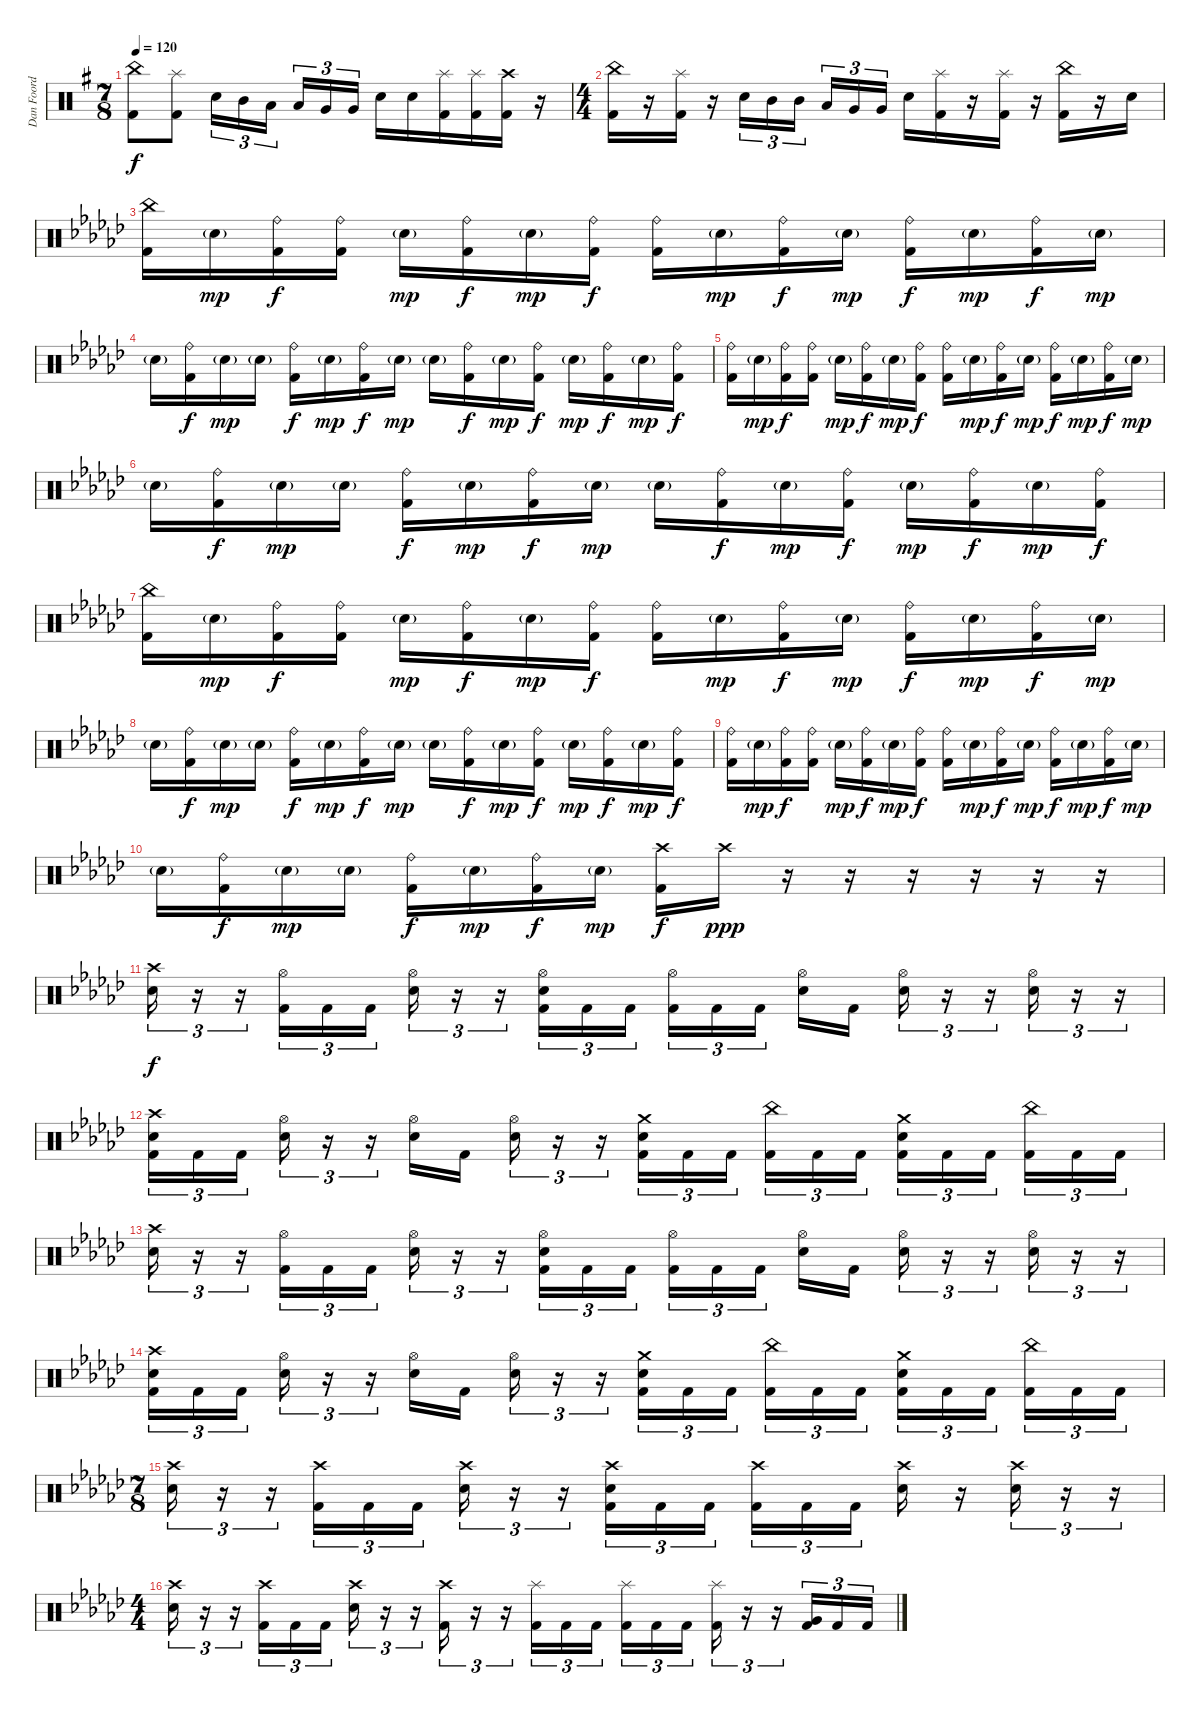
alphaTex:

\track ("Dan Foord 2" "Dan Foord ") {instrument percussion}
\staff {score}
\articulation defaults
\ts (7 8)
\tempo 120
\clef neutral
\ks g
("China (hit)" "Kick (hit) 2").8{dy f} ("Splash (hit)" "Kick (hit) 2").8 "Snare (hit) 2".16{tu (3 2)} "Mid Tom (hit)".16{tu (3 2)} "Low Tom (hit)".16{tu (3 2)} "Low Tom (hit)".16{tu (3 2)} "Very Low Tom (hit)".16{tu (3 2)} "Very Low Tom (hit)".16{tu (3 2)} "Snare (hit) 2".16 "Snare (hit) 2".16 ("Splash (hit)" "Kick (hit) 2").16 ("Splash (hit)" "Kick (hit) 2").16 ("Crash high (hit)" "Kick (hit) 2").16 r.16 |
\ts (4 4)
("China (hit)" "Kick (hit) 2").16 r.16 ("Splash (hit)" "Kick (hit) 2").16 r.16 "Snare (hit) 2".16{tu (3 2)} "Mid Tom (hit)".16{tu (3 2)} "Mid Tom (hit)".16{tu (3 2) beam splitsecondary} "Low Tom (hit)".16{tu (3 2)} "Very Low Tom (hit)".16{tu (3 2)} "Very Low Tom (hit)".16{tu (3 2)} "Snare (hit) 2".16 ("Splash (hit)" "Kick (hit) 2").16 r.16 ("Splash (hit)" "Kick (hit) 2").16 r.16 ("China (hit)" "Kick (hit) 2").16 r.16 "Snare (hit) 2".16 |
\ks gb
("China (hit)" "Kick (hit) 2").16 "Snare (hit) 2"{g}.16{dy mp} ("Ride (bell)" "Kick (hit) 2").16{dy f} ("Ride (bell)" "Kick (hit) 2").16 "Snare (hit) 2"{g}.16{dy mp} ("Ride (bell)" "Kick (hit) 2").16{dy f} "Snare (hit) 2"{g}.16{dy mp} ("Ride (bell)" "Kick (hit) 2").16{dy f} ("Ride (bell)" "Kick (hit) 2").16 "Snare (hit) 2"{g}.16{dy mp} ("Ride (bell)" "Kick (hit) 2").16{dy f} "Snare (hit) 2"{g}.16{dy mp} ("Ride (bell)" "Kick (hit) 2").16{dy f} "Snare (hit) 2"{g}.16{dy mp} ("Ride (bell)" "Kick (hit) 2").16{dy f} "Snare (hit) 2"{g}.16{dy mp} |
"Snare (hit) 2"{g}.16 ("Ride (bell)" "Kick (hit) 2").16{dy f} "Snare (hit) 2"{g}.16{dy mp} "Snare (hit) 2"{g}.16 ("Ride (bell)" "Kick (hit) 2").16{dy f} "Snare (hit) 2"{g}.16{dy mp} ("Ride (bell)" "Kick (hit) 2").16{dy f} "Snare (hit) 2"{g}.16{dy mp} "Snare (hit) 2"{g}.16 ("Ride (bell)" "Kick (hit) 2").16{dy f} "Snare (hit) 2"{g}.16{dy mp} ("Ride (bell)" "Kick (hit) 2").16{dy f} "Snare (hit) 2"{g}.16{dy mp} ("Ride (bell)" "Kick (hit) 2").16{dy f} "Snare (hit) 2"{g}.16{dy mp} ("Ride (bell)" "Kick (hit) 2").16{dy f} |
("Ride (bell)" "Kick (hit) 2").16 "Snare (hit) 2"{g}.16{dy mp} ("Ride (bell)" "Kick (hit) 2").16{dy f} ("Ride (bell)" "Kick (hit) 2").16 "Snare (hit) 2"{g}.16{dy mp} ("Ride (bell)" "Kick (hit) 2").16{dy f} "Snare (hit) 2"{g}.16{dy mp} ("Ride (bell)" "Kick (hit) 2").16{dy f} ("Ride (bell)" "Kick (hit) 2").16 "Snare (hit) 2"{g}.16{dy mp} ("Ride (bell)" "Kick (hit) 2").16{dy f} "Snare (hit) 2"{g}.16{dy mp} ("Ride (bell)" "Kick (hit) 2").16{dy f} "Snare (hit) 2"{g}.16{dy mp} ("Ride (bell)" "Kick (hit) 2").16{dy f} "Snare (hit) 2"{g}.16{dy mp} |
"Snare (hit) 2"{g}.16 ("Ride (bell)" "Kick (hit) 2").16{dy f} "Snare (hit) 2"{g}.16{dy mp} "Snare (hit) 2"{g}.16 ("Ride (bell)" "Kick (hit) 2").16{dy f} "Snare (hit) 2"{g}.16{dy mp} ("Ride (bell)" "Kick (hit) 2").16{dy f} "Snare (hit) 2"{g}.16{dy mp} "Snare (hit) 2"{g}.16 ("Ride (bell)" "Kick (hit) 2").16{dy f} "Snare (hit) 2"{g}.16{dy mp} ("Ride (bell)" "Kick (hit) 2").16{dy f} "Snare (hit) 2"{g}.16{dy mp} ("Ride (bell)" "Kick (hit) 2").16{dy f} "Snare (hit) 2"{g}.16{dy mp} ("Ride (bell)" "Kick (hit) 2").16{dy f} |
("China (hit)" "Kick (hit) 2").16 "Snare (hit) 2"{g}.16{dy mp} ("Ride (bell)" "Kick (hit) 2").16{dy f} ("Ride (bell)" "Kick (hit) 2").16 "Snare (hit) 2"{g}.16{dy mp} ("Ride (bell)" "Kick (hit) 2").16{dy f} "Snare (hit) 2"{g}.16{dy mp} ("Ride (bell)" "Kick (hit) 2").16{dy f} ("Ride (bell)" "Kick (hit) 2").16 "Snare (hit) 2"{g}.16{dy mp} ("Ride (bell)" "Kick (hit) 2").16{dy f} "Snare (hit) 2"{g}.16{dy mp} ("Ride (bell)" "Kick (hit) 2").16{dy f} "Snare (hit) 2"{g}.16{dy mp} ("Ride (bell)" "Kick (hit) 2").16{dy f} "Snare (hit) 2"{g}.16{dy mp} |
"Snare (hit) 2"{g}.16 ("Ride (bell)" "Kick (hit) 2").16{dy f} "Snare (hit) 2"{g}.16{dy mp} "Snare (hit) 2"{g}.16 ("Ride (bell)" "Kick (hit) 2").16{dy f} "Snare (hit) 2"{g}.16{dy mp} ("Ride (bell)" "Kick (hit) 2").16{dy f} "Snare (hit) 2"{g}.16{dy mp} "Snare (hit) 2"{g}.16 ("Ride (bell)" "Kick (hit) 2").16{dy f} "Snare (hit) 2"{g}.16{dy mp} ("Ride (bell)" "Kick (hit) 2").16{dy f} "Snare (hit) 2"{g}.16{dy mp} ("Ride (bell)" "Kick (hit) 2").16{dy f} "Snare (hit) 2"{g}.16{dy mp} ("Ride (bell)" "Kick (hit) 2").16{dy f} |
("Ride (bell)" "Kick (hit) 2").16 "Snare (hit) 2"{g}.16{dy mp} ("Ride (bell)" "Kick (hit) 2").16{dy f} ("Ride (bell)" "Kick (hit) 2").16 "Snare (hit) 2"{g}.16{dy mp} ("Ride (bell)" "Kick (hit) 2").16{dy f} "Snare (hit) 2"{g}.16{dy mp} ("Ride (bell)" "Kick (hit) 2").16{dy f} ("Ride (bell)" "Kick (hit) 2").16 "Snare (hit) 2"{g}.16{dy mp} ("Ride (bell)" "Kick (hit) 2").16{dy f} "Snare (hit) 2"{g}.16{dy mp} ("Ride (bell)" "Kick (hit) 2").16{dy f} "Snare (hit) 2"{g}.16{dy mp} ("Ride (bell)" "Kick (hit) 2").16{dy f} "Snare (hit) 2"{g}.16{dy mp} |
"Snare (hit) 2"{g}.16 ("Ride (bell)" "Kick (hit) 2").16{dy f} "Snare (hit) 2"{g}.16{dy mp} "Snare (hit) 2"{g}.16 ("Ride (bell)" "Kick (hit) 2").16{dy f} "Snare (hit) 2"{g}.16{dy mp} ("Ride (bell)" "Kick (hit) 2").16{dy f} "Snare (hit) 2"{g}.16{dy mp} ("Crash high (hit)" "Kick (hit) 2").16{dy f} "Crash high (hit)".16{dy ppp} r.16 r.16 r.16 r.16 r.16 r.16 |
("Crash high (hit)" "Snare (hit) 2").16{tu (3 2) dy f} r.16{tu (3 2)} r.16{tu (3 2)} ("Hi-Hat (open)" "Kick (hit) 2").16{tu (3 2)} "Kick (hit) 2".16{tu (3 2)} "Kick (hit) 2".16{tu (3 2)} ("Hi-Hat (open)" "Snare (hit) 2").16{tu (3 2)} r.16{tu (3 2)} r.16{tu (3 2)} ("Hi-Hat (open)" "Snare (hit) 2" "Kick (hit) 2").16{tu (3 2)} "Kick (hit) 2".16{tu (3 2)} "Kick (hit) 2".16{tu (3 2)} ("Hi-Hat (open)" "Kick (hit) 2").16{tu (3 2)} "Kick (hit) 2".16{tu (3 2)} "Kick (hit) 2".16{tu (3 2) beam splitsecondary} ("Hi-Hat (open)" "Snare (hit) 2").16 "Kick (hit) 2".16 ("Hi-Hat (open)" "Snare (hit) 2").16{tu (3 2)} r.16{tu (3 2)} r.16{tu (3 2)} ("Hi-Hat (open)" "Snare (hit) 2").16{tu (3 2)} r.16{tu (3 2)} r.16{tu (3 2)} |
("Crash high (hit)" "Snare (hit) 2" "Kick (hit) 2").16{tu (3 2)} "Kick (hit) 2".16{tu (3 2)} "Kick (hit) 2".16{tu (3 2) beam splitsecondary} ("Hi-Hat (open)" "Snare (hit) 2").16{tu (3 2)} r.16{tu (3 2)} r.16{tu (3 2)} ("Hi-Hat (open)" "Snare (hit) 2").16 "Kick (hit) 2".16{beam splitsecondary} ("Hi-Hat (open)" "Snare (hit) 2").16{tu (3 2)} r.16{tu (3 2)} r.16{tu (3 2)} ("Crash medium (hit)" "Snare (hit) 2" "Kick (hit) 2").16{tu (3 2)} "Kick (hit) 2".16{tu (3 2)} "Kick (hit) 2".16{tu (3 2) beam splitsecondary} ("China (hit)" "Kick (hit) 2").16{tu (3 2)} "Kick (hit) 2".16{tu (3 2)} "Kick (hit) 2".16{tu (3 2)} ("Crash medium (hit)" "Snare (hit) 2" "Kick (hit) 2").16{tu (3 2)} "Kick (hit) 2".16{tu (3 2)} "Kick (hit) 2".16{tu (3 2) beam splitsecondary} ("China (hit)" "Kick (hit) 2").16{tu (3 2)} "Kick (hit) 2".16{tu (3 2)} "Kick (hit) 2".16{tu (3 2)} |
("Crash high (hit)" "Snare (hit) 2").16{tu (3 2)} r.16{tu (3 2)} r.16{tu (3 2)} ("Hi-Hat (open)" "Kick (hit) 2").16{tu (3 2)} "Kick (hit) 2".16{tu (3 2)} "Kick (hit) 2".16{tu (3 2)} ("Hi-Hat (open)" "Snare (hit) 2").16{tu (3 2)} r.16{tu (3 2)} r.16{tu (3 2)} ("Hi-Hat (open)" "Snare (hit) 2" "Kick (hit) 2").16{tu (3 2)} "Kick (hit) 2".16{tu (3 2)} "Kick (hit) 2".16{tu (3 2)} ("Hi-Hat (open)" "Kick (hit) 2").16{tu (3 2)} "Kick (hit) 2".16{tu (3 2)} "Kick (hit) 2".16{tu (3 2) beam splitsecondary} ("Hi-Hat (open)" "Snare (hit) 2").16 "Kick (hit) 2".16 ("Hi-Hat (open)" "Snare (hit) 2").16{tu (3 2)} r.16{tu (3 2)} r.16{tu (3 2)} ("Hi-Hat (open)" "Snare (hit) 2").16{tu (3 2)} r.16{tu (3 2)} r.16{tu (3 2)} |
("Crash high (hit)" "Snare (hit) 2" "Kick (hit) 2").16{tu (3 2)} "Kick (hit) 2".16{tu (3 2)} "Kick (hit) 2".16{tu (3 2) beam splitsecondary} ("Hi-Hat (open)" "Snare (hit) 2").16{tu (3 2)} r.16{tu (3 2)} r.16{tu (3 2)} ("Hi-Hat (open)" "Snare (hit) 2").16 "Kick (hit) 2".16{beam splitsecondary} ("Hi-Hat (open)" "Snare (hit) 2").16{tu (3 2)} r.16{tu (3 2)} r.16{tu (3 2)} ("Crash medium (hit)" "Snare (hit) 2" "Kick (hit) 2").16{tu (3 2)} "Kick (hit) 2".16{tu (3 2)} "Kick (hit) 2".16{tu (3 2) beam splitsecondary} ("China (hit)" "Kick (hit) 2").16{tu (3 2)} "Kick (hit) 2".16{tu (3 2)} "Kick (hit) 2".16{tu (3 2)} ("Crash medium (hit)" "Snare (hit) 2" "Kick (hit) 2").16{tu (3 2)} "Kick (hit) 2".16{tu (3 2)} "Kick (hit) 2".16{tu (3 2) beam splitsecondary} ("China (hit)" "Kick (hit) 2").16{tu (3 2)} "Kick (hit) 2".16{tu (3 2)} "Kick (hit) 2".16{tu (3 2)} |
\ts (7 8)
("Crash high (hit)" "Snare (hit) 2").16{tu (3 2)} r.16{tu (3 2)} r.16{tu (3 2)} ("Crash high (hit)" "Kick (hit) 2").16{tu (3 2)} "Kick (hit) 2".16{tu (3 2)} "Kick (hit) 2".16{tu (3 2)} ("Crash high (hit)" "Snare (hit) 2").16{tu (3 2)} r.16{tu (3 2)} r.16{tu (3 2)} ("Crash high (hit)" "Snare (hit) 2" "Kick (hit) 2").16{tu (3 2)} "Kick (hit) 2".16{tu (3 2)} "Kick (hit) 2".16{tu (3 2)} ("Crash high (hit)" "Kick (hit) 2").16{tu (3 2)} "Kick (hit) 2".16{tu (3 2)} "Kick (hit) 2".16{tu (3 2)} ("Crash high (hit)" "Snare (hit) 2").16 r.16 ("Crash high (hit)" "Snare (hit) 2").16{tu (3 2)} r.16{tu (3 2)} r.16{tu (3 2)} |
\ts (4 4)
("Crash high (hit)" "Snare (hit) 2").16{tu (3 2)} r.16{tu (3 2)} r.16{tu (3 2)} ("Crash high (hit)" "Kick (hit) 2").16{tu (3 2)} "Kick (hit) 2".16{tu (3 2)} "Kick (hit) 2".16{tu (3 2)} ("Crash high (hit)" "Snare (hit) 2").16{tu (3 2)} r.16{tu (3 2)} r.16{tu (3 2)} ("Crash high (hit)" "Kick (hit) 2").16{tu (3 2)} r.16{tu (3 2)} r.16{tu (3 2)} ("Splash (hit)" "Kick (hit) 2").16{tu (3 2)} "Kick (hit) 2".16{tu (3 2)} "Kick (hit) 2".16{tu (3 2) beam splitsecondary} ("Splash (hit)" "Kick (hit) 2").16{tu (3 2)} "Kick (hit) 2".16{tu (3 2)} "Kick (hit) 2".16{tu (3 2)} ("Splash (hit)" "Kick (hit) 2").16{tu (3 2)} r.16{tu (3 2)} r.16{tu (3 2)} ("Very Low Tom (hit)" "Kick (hit) 2").16{tu (3 2)} "Kick (hit) 2".16{tu (3 2)} "Kick (hit) 2".16{tu (3 2)}
